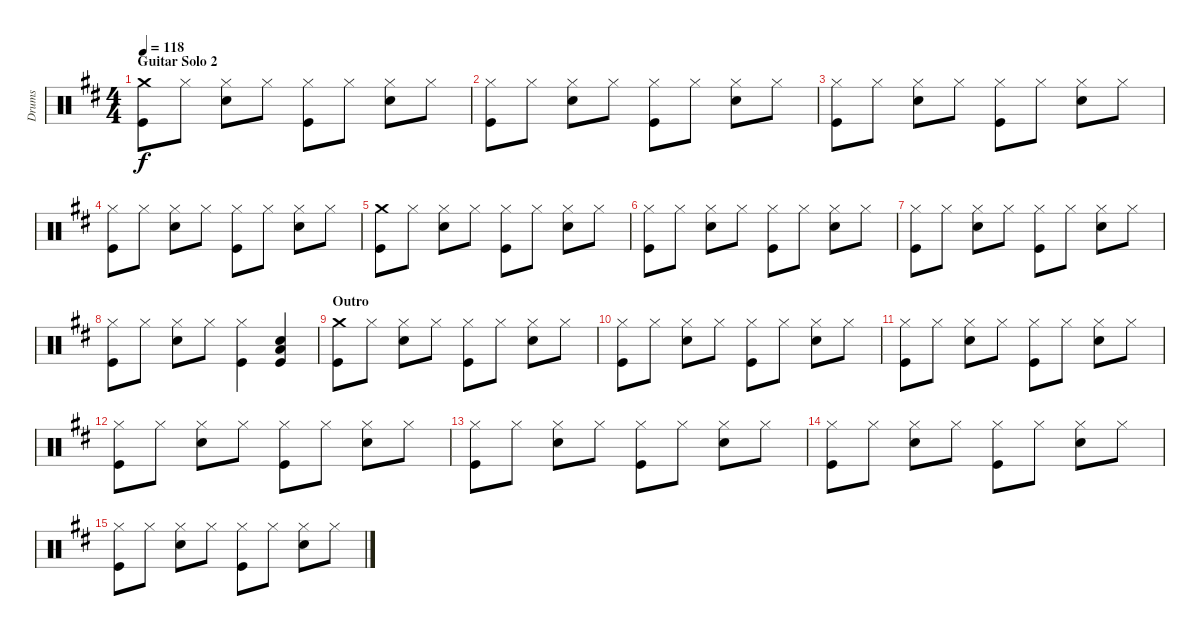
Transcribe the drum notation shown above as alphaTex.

\track ("Drums" "Drums") {instrument percussion}
\staff {score}
\articulation defaults
\ts (4 4)
\section ("" "Guitar Solo 2")
\tempo 118
\clef neutral
\ks d
("Crash medium (hit)" "Kick (hit)").8{dy f} "Hi-Hat (closed)".8 ("Hi-Hat (closed)" "Electric Snare (hit)").8 "Hi-Hat (closed)".8 ("Hi-Hat (closed)" "Kick (hit)").8 "Hi-Hat (closed)".8 ("Hi-Hat (closed)" "Electric Snare (hit)").8 "Hi-Hat (closed)".8 |
("Hi-Hat (closed)" "Kick (hit)").8 "Hi-Hat (closed)".8 ("Hi-Hat (closed)" "Electric Snare (hit)").8 "Hi-Hat (closed)".8 ("Hi-Hat (closed)" "Kick (hit)").8 "Hi-Hat (closed)".8 ("Hi-Hat (closed)" "Electric Snare (hit)").8 "Hi-Hat (closed)".8 |
("Hi-Hat (closed)" "Kick (hit)").8 "Hi-Hat (closed)".8 ("Hi-Hat (closed)" "Electric Snare (hit)").8 "Hi-Hat (closed)".8 ("Hi-Hat (closed)" "Kick (hit)").8 "Hi-Hat (closed)".8 ("Hi-Hat (closed)" "Electric Snare (hit)").8 "Hi-Hat (closed)".8 |
("Hi-Hat (closed)" "Kick (hit)").8 "Hi-Hat (closed)".8 ("Hi-Hat (closed)" "Electric Snare (hit)").8 "Hi-Hat (closed)".8 ("Hi-Hat (closed)" "Kick (hit)").8 "Hi-Hat (closed)".8 ("Hi-Hat (closed)" "Electric Snare (hit)").8 "Hi-Hat (closed)".8 |
("Crash medium (hit)" "Kick (hit)").8 "Hi-Hat (closed)".8 ("Hi-Hat (closed)" "Electric Snare (hit)").8 "Hi-Hat (closed)".8 ("Hi-Hat (closed)" "Kick (hit)").8 "Hi-Hat (closed)".8 ("Hi-Hat (closed)" "Electric Snare (hit)").8 "Hi-Hat (closed)".8 |
("Hi-Hat (closed)" "Kick (hit)").8 "Hi-Hat (closed)".8 ("Hi-Hat (closed)" "Electric Snare (hit)").8 "Hi-Hat (closed)".8 ("Hi-Hat (closed)" "Kick (hit)").8 "Hi-Hat (closed)".8 ("Hi-Hat (closed)" "Electric Snare (hit)").8 "Hi-Hat (closed)".8 |
("Hi-Hat (closed)" "Kick (hit)").8 "Hi-Hat (closed)".8 ("Hi-Hat (closed)" "Electric Snare (hit)").8 "Hi-Hat (closed)".8 ("Hi-Hat (closed)" "Kick (hit)").8 "Hi-Hat (closed)".8 ("Hi-Hat (closed)" "Electric Snare (hit)").8 "Hi-Hat (closed)".8 |
("Hi-Hat (closed)" "Kick (hit)").8 "Hi-Hat (closed)".8 ("Hi-Hat (closed)" "Electric Snare (hit)").8 "Hi-Hat (closed)".8 ("Hi-Hat (closed)" "Kick (hit)").4 ("Electric Snare (hit)" "Low Tom (hit)" "Kick (hit)").4 |
\section ("" "Outro")
("Crash medium (hit)" "Kick (hit)").8 "Hi-Hat (closed)".8 ("Hi-Hat (closed)" "Electric Snare (hit)").8 "Hi-Hat (closed)".8 ("Hi-Hat (closed)" "Kick (hit)").8 "Hi-Hat (closed)".8 ("Hi-Hat (closed)" "Electric Snare (hit)").8 "Hi-Hat (closed)".8 |
("Hi-Hat (closed)" "Kick (hit)").8 "Hi-Hat (closed)".8 ("Hi-Hat (closed)" "Electric Snare (hit)").8 "Hi-Hat (closed)".8 ("Hi-Hat (closed)" "Kick (hit)").8 "Hi-Hat (closed)".8 ("Hi-Hat (closed)" "Electric Snare (hit)").8 "Hi-Hat (closed)".8 |
("Hi-Hat (closed)" "Kick (hit)").8 "Hi-Hat (closed)".8 ("Hi-Hat (closed)" "Electric Snare (hit)").8 "Hi-Hat (closed)".8 ("Hi-Hat (closed)" "Kick (hit)").8 "Hi-Hat (closed)".8 ("Hi-Hat (closed)" "Electric Snare (hit)").8 "Hi-Hat (closed)".8 |
("Hi-Hat (closed)" "Kick (hit)").8 "Hi-Hat (closed)".8 ("Hi-Hat (closed)" "Electric Snare (hit)").8 "Hi-Hat (closed)".8 ("Hi-Hat (closed)" "Kick (hit)").8 "Hi-Hat (closed)".8 ("Hi-Hat (closed)" "Electric Snare (hit)").8 "Hi-Hat (closed)".8 |
("Hi-Hat (closed)" "Kick (hit)").8 "Hi-Hat (closed)".8 ("Hi-Hat (closed)" "Electric Snare (hit)").8 "Hi-Hat (closed)".8 ("Hi-Hat (closed)" "Kick (hit)").8 "Hi-Hat (closed)".8 ("Hi-Hat (closed)" "Electric Snare (hit)").8 "Hi-Hat (closed)".8 |
("Hi-Hat (closed)" "Kick (hit)").8 "Hi-Hat (closed)".8 ("Hi-Hat (closed)" "Electric Snare (hit)").8 "Hi-Hat (closed)".8 ("Hi-Hat (closed)" "Kick (hit)").8 "Hi-Hat (closed)".8 ("Hi-Hat (closed)" "Electric Snare (hit)").8 "Hi-Hat (closed)".8 |
("Hi-Hat (closed)" "Kick (hit)").8 "Hi-Hat (closed)".8 ("Hi-Hat (closed)" "Electric Snare (hit)").8 "Hi-Hat (closed)".8 ("Hi-Hat (closed)" "Kick (hit)").8 "Hi-Hat (closed)".8 ("Hi-Hat (closed)" "Electric Snare (hit)").8 "Hi-Hat (closed)".8
